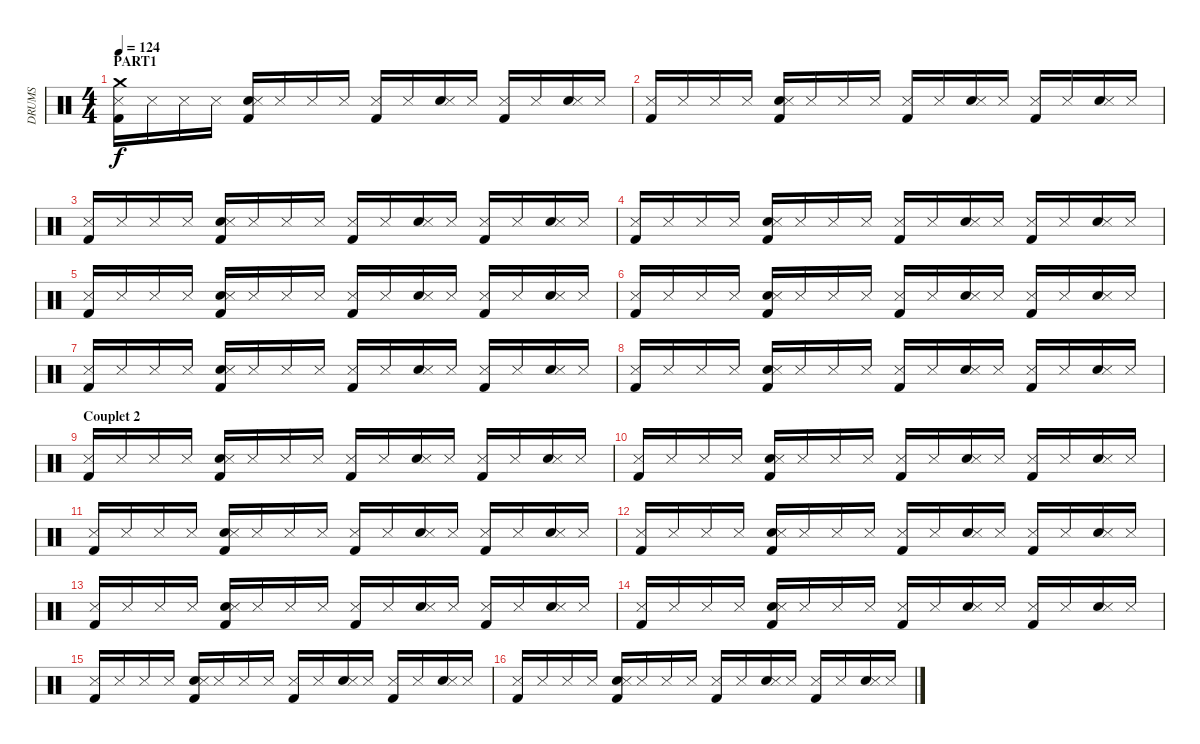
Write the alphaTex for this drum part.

\track ("DRUMS" "DRUMS") {instrument percussion}
\staff {score}
\articulation defaults
\ts (4 4)
\section ("" "PART1")
\tempo 124
\clef neutral
\ks c
("Kick (hit) 2" "Snare (side stick) 3" "Crash medium (hit)").16{dy f} "Snare (side stick) 3".16 "Snare (side stick) 3".16 "Snare (side stick) 3".16 ("Kick (hit) 2" "Snare (hit) 2" "Snare (side stick) 3").16 "Snare (side stick) 3".16 "Snare (side stick) 3".16 "Snare (side stick) 3".16 ("Kick (hit) 2" "Snare (side stick) 3").16 "Snare (side stick) 3".16 ("Snare (hit) 2" "Snare (side stick) 3").16 "Snare (side stick) 3".16 ("Kick (hit) 2" "Snare (side stick) 3").16 "Snare (side stick) 3".16 ("Snare (hit) 2" "Snare (side stick) 3").16 "Snare (side stick) 3".16 |
("Kick (hit) 2" "Snare (side stick) 3").16 "Snare (side stick) 3".16 "Snare (side stick) 3".16 "Snare (side stick) 3".16 ("Kick (hit) 2" "Snare (hit) 2" "Snare (side stick) 3").16 "Snare (side stick) 3".16 "Snare (side stick) 3".16 "Snare (side stick) 3".16 ("Kick (hit) 2" "Snare (side stick) 3").16 "Snare (side stick) 3".16 ("Snare (hit) 2" "Snare (side stick) 3").16 "Snare (side stick) 3".16 ("Kick (hit) 2" "Snare (side stick) 3").16 "Snare (side stick) 3".16 ("Snare (hit) 2" "Snare (side stick) 3").16 "Snare (side stick) 3".16 |
("Kick (hit) 2" "Snare (side stick) 3").16 "Snare (side stick) 3".16 "Snare (side stick) 3".16 "Snare (side stick) 3".16 ("Kick (hit) 2" "Snare (hit) 2" "Snare (side stick) 3").16 "Snare (side stick) 3".16 "Snare (side stick) 3".16 "Snare (side stick) 3".16 ("Kick (hit) 2" "Snare (side stick) 3").16 "Snare (side stick) 3".16 ("Snare (hit) 2" "Snare (side stick) 3").16 "Snare (side stick) 3".16 ("Kick (hit) 2" "Snare (side stick) 3").16 "Snare (side stick) 3".16 ("Snare (hit) 2" "Snare (side stick) 3").16 "Snare (side stick) 3".16 |
("Kick (hit) 2" "Snare (side stick) 3").16 "Snare (side stick) 3".16 "Snare (side stick) 3".16 "Snare (side stick) 3".16 ("Kick (hit) 2" "Snare (hit) 2" "Snare (side stick) 3").16 "Snare (side stick) 3".16 "Snare (side stick) 3".16 "Snare (side stick) 3".16 ("Kick (hit) 2" "Snare (side stick) 3").16 "Snare (side stick) 3".16 ("Snare (hit) 2" "Snare (side stick) 3").16 "Snare (side stick) 3".16 ("Kick (hit) 2" "Snare (side stick) 3").16 "Snare (side stick) 3".16 ("Snare (hit) 2" "Snare (side stick) 3").16 "Snare (side stick) 3".16 |
("Kick (hit) 2" "Snare (side stick) 3").16 "Snare (side stick) 3".16 "Snare (side stick) 3".16 "Snare (side stick) 3".16 ("Kick (hit) 2" "Snare (hit) 2" "Snare (side stick) 3").16 "Snare (side stick) 3".16 "Snare (side stick) 3".16 "Snare (side stick) 3".16 ("Kick (hit) 2" "Snare (side stick) 3").16 "Snare (side stick) 3".16 ("Snare (hit) 2" "Snare (side stick) 3").16 "Snare (side stick) 3".16 ("Kick (hit) 2" "Snare (side stick) 3").16 "Snare (side stick) 3".16 ("Snare (hit) 2" "Snare (side stick) 3").16 "Snare (side stick) 3".16 |
("Kick (hit) 2" "Snare (side stick) 3").16 "Snare (side stick) 3".16 "Snare (side stick) 3".16 "Snare (side stick) 3".16 ("Kick (hit) 2" "Snare (hit) 2" "Snare (side stick) 3").16 "Snare (side stick) 3".16 "Snare (side stick) 3".16 "Snare (side stick) 3".16 ("Kick (hit) 2" "Snare (side stick) 3").16 "Snare (side stick) 3".16 ("Snare (hit) 2" "Snare (side stick) 3").16 "Snare (side stick) 3".16 ("Kick (hit) 2" "Snare (side stick) 3").16 "Snare (side stick) 3".16 ("Snare (hit) 2" "Snare (side stick) 3").16 "Snare (side stick) 3".16 |
("Kick (hit) 2" "Snare (side stick) 3").16 "Snare (side stick) 3".16 "Snare (side stick) 3".16 "Snare (side stick) 3".16 ("Kick (hit) 2" "Snare (hit) 2" "Snare (side stick) 3").16 "Snare (side stick) 3".16 "Snare (side stick) 3".16 "Snare (side stick) 3".16 ("Kick (hit) 2" "Snare (side stick) 3").16 "Snare (side stick) 3".16 ("Snare (hit) 2" "Snare (side stick) 3").16 "Snare (side stick) 3".16 ("Kick (hit) 2" "Snare (side stick) 3").16 "Snare (side stick) 3".16 ("Snare (hit) 2" "Snare (side stick) 3").16 "Snare (side stick) 3".16 |
("Kick (hit) 2" "Snare (side stick) 3").16 "Snare (side stick) 3".16 "Snare (side stick) 3".16 "Snare (side stick) 3".16 ("Kick (hit) 2" "Snare (hit) 2" "Snare (side stick) 3").16 "Snare (side stick) 3".16 "Snare (side stick) 3".16 "Snare (side stick) 3".16 ("Kick (hit) 2" "Snare (side stick) 3").16 "Snare (side stick) 3".16 ("Snare (hit) 2" "Snare (side stick) 3").16 "Snare (side stick) 3".16 ("Kick (hit) 2" "Snare (side stick) 3").16 "Snare (side stick) 3".16 ("Snare (hit) 2" "Snare (side stick) 3").16 "Snare (side stick) 3".16 |
\section ("" "Couplet 2")
("Kick (hit) 2" "Snare (side stick) 3").16 "Snare (side stick) 3".16 "Snare (side stick) 3".16 "Snare (side stick) 3".16 ("Kick (hit) 2" "Snare (hit) 2" "Snare (side stick) 3").16 "Snare (side stick) 3".16 "Snare (side stick) 3".16 "Snare (side stick) 3".16 ("Kick (hit) 2" "Snare (side stick) 3").16 "Snare (side stick) 3".16 ("Snare (hit) 2" "Snare (side stick) 3").16 "Snare (side stick) 3".16 ("Kick (hit) 2" "Snare (side stick) 3").16 "Snare (side stick) 3".16 ("Snare (hit) 2" "Snare (side stick) 3").16 "Snare (side stick) 3".16 |
("Kick (hit) 2" "Snare (side stick) 3").16 "Snare (side stick) 3".16 "Snare (side stick) 3".16 "Snare (side stick) 3".16 ("Kick (hit) 2" "Snare (hit) 2" "Snare (side stick) 3").16 "Snare (side stick) 3".16 "Snare (side stick) 3".16 "Snare (side stick) 3".16 ("Kick (hit) 2" "Snare (side stick) 3").16 "Snare (side stick) 3".16 ("Snare (hit) 2" "Snare (side stick) 3").16 "Snare (side stick) 3".16 ("Kick (hit) 2" "Snare (side stick) 3").16 "Snare (side stick) 3".16 ("Snare (hit) 2" "Snare (side stick) 3").16 "Snare (side stick) 3".16 |
("Kick (hit) 2" "Snare (side stick) 3").16 "Snare (side stick) 3".16 "Snare (side stick) 3".16 "Snare (side stick) 3".16 ("Kick (hit) 2" "Snare (hit) 2" "Snare (side stick) 3").16 "Snare (side stick) 3".16 "Snare (side stick) 3".16 "Snare (side stick) 3".16 ("Kick (hit) 2" "Snare (side stick) 3").16 "Snare (side stick) 3".16 ("Snare (hit) 2" "Snare (side stick) 3").16 "Snare (side stick) 3".16 ("Kick (hit) 2" "Snare (side stick) 3").16 "Snare (side stick) 3".16 ("Snare (hit) 2" "Snare (side stick) 3").16 "Snare (side stick) 3".16 |
("Kick (hit) 2" "Snare (side stick) 3").16 "Snare (side stick) 3".16 "Snare (side stick) 3".16 "Snare (side stick) 3".16 ("Kick (hit) 2" "Snare (hit) 2" "Snare (side stick) 3").16 "Snare (side stick) 3".16 "Snare (side stick) 3".16 "Snare (side stick) 3".16 ("Kick (hit) 2" "Snare (side stick) 3").16 "Snare (side stick) 3".16 ("Snare (hit) 2" "Snare (side stick) 3").16 "Snare (side stick) 3".16 ("Kick (hit) 2" "Snare (side stick) 3").16 "Snare (side stick) 3".16 ("Snare (hit) 2" "Snare (side stick) 3").16 "Snare (side stick) 3".16 |
("Kick (hit) 2" "Snare (side stick) 3").16 "Snare (side stick) 3".16 "Snare (side stick) 3".16 "Snare (side stick) 3".16 ("Kick (hit) 2" "Snare (hit) 2" "Snare (side stick) 3").16 "Snare (side stick) 3".16 "Snare (side stick) 3".16 "Snare (side stick) 3".16 ("Kick (hit) 2" "Snare (side stick) 3").16 "Snare (side stick) 3".16 ("Snare (hit) 2" "Snare (side stick) 3").16 "Snare (side stick) 3".16 ("Kick (hit) 2" "Snare (side stick) 3").16 "Snare (side stick) 3".16 ("Snare (hit) 2" "Snare (side stick) 3").16 "Snare (side stick) 3".16 |
("Kick (hit) 2" "Snare (side stick) 3").16 "Snare (side stick) 3".16 "Snare (side stick) 3".16 "Snare (side stick) 3".16 ("Kick (hit) 2" "Snare (hit) 2" "Snare (side stick) 3").16 "Snare (side stick) 3".16 "Snare (side stick) 3".16 "Snare (side stick) 3".16 ("Kick (hit) 2" "Snare (side stick) 3").16 "Snare (side stick) 3".16 ("Snare (hit) 2" "Snare (side stick) 3").16 "Snare (side stick) 3".16 ("Kick (hit) 2" "Snare (side stick) 3").16 "Snare (side stick) 3".16 ("Snare (hit) 2" "Snare (side stick) 3").16 "Snare (side stick) 3".16 |
("Kick (hit) 2" "Snare (side stick) 3").16 "Snare (side stick) 3".16 "Snare (side stick) 3".16 "Snare (side stick) 3".16 ("Kick (hit) 2" "Snare (hit) 2" "Snare (side stick) 3").16 "Snare (side stick) 3".16 "Snare (side stick) 3".16 "Snare (side stick) 3".16 ("Kick (hit) 2" "Snare (side stick) 3").16 "Snare (side stick) 3".16 ("Snare (hit) 2" "Snare (side stick) 3").16 "Snare (side stick) 3".16 ("Kick (hit) 2" "Snare (side stick) 3").16 "Snare (side stick) 3".16 ("Snare (hit) 2" "Snare (side stick) 3").16 "Snare (side stick) 3".16 |
("Kick (hit) 2" "Snare (side stick) 3").16 "Snare (side stick) 3".16 "Snare (side stick) 3".16 "Snare (side stick) 3".16 ("Kick (hit) 2" "Snare (hit) 2" "Snare (side stick) 3").16 "Snare (side stick) 3".16 "Snare (side stick) 3".16 "Snare (side stick) 3".16 ("Kick (hit) 2" "Snare (side stick) 3").16 "Snare (side stick) 3".16 ("Snare (hit) 2" "Snare (side stick) 3").16 "Snare (side stick) 3".16 ("Kick (hit) 2" "Snare (side stick) 3").16 "Snare (side stick) 3".16 ("Snare (hit) 2" "Snare (side stick) 3").16 "Snare (side stick) 3".16
